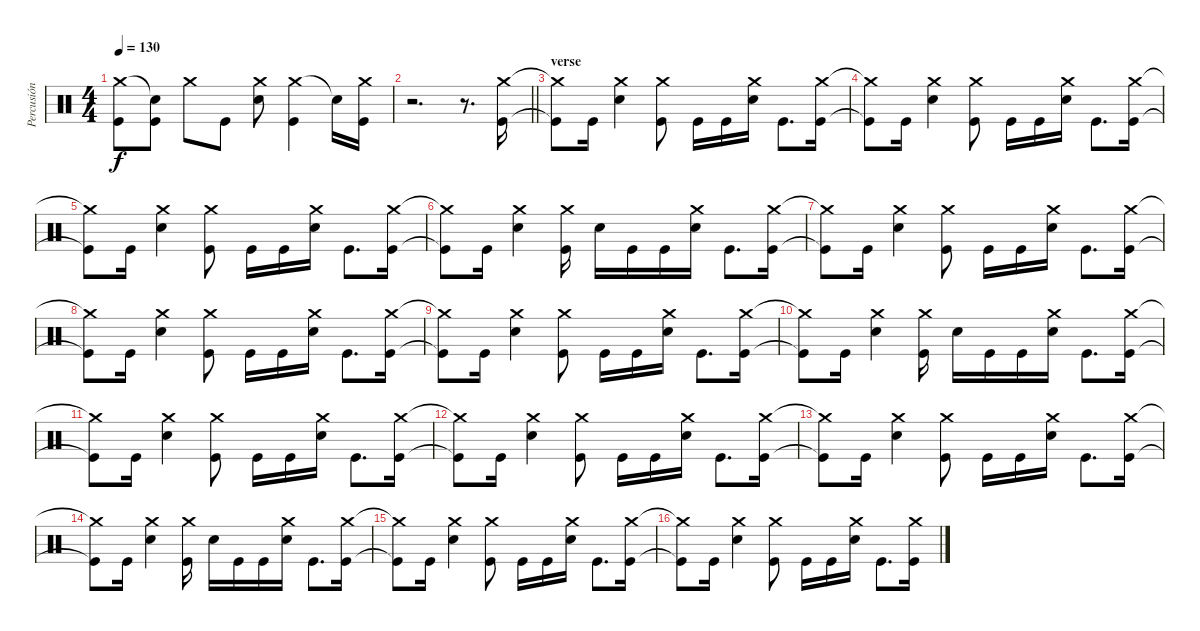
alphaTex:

\track ("Percusión" "Percusión") {instrument percussion}
\staff {score}
\articulation defaults
\ts (4 4)
\tempo 130
\clef neutral
\ks c
("Crash medium (hit)" "Kick (hit)").8{dy f} ("Snare (hit)"{t} "Kick (hit)").8 "Crash medium (hit)".8 "Kick (hit)".8 ("Crash medium (hit)" "Electric Snare (hit)").8 ("Crash medium (hit)" "Kick (hit)").4 "Snare (hit)"{t}.16 ("Crash medium (hit)" "Kick (hit)").16 |
\barLineRight lightlight
r.2{d} r.8{d} ("Crash medium (hit)" "Kick (hit)").16 |
\section ("" "verse")
("Crash medium (hit)"{t} "Kick (hit)"{t}).8 "Kick (hit)".16 ("Crash medium (hit)" "Electric Snare (hit)").4 ("Crash medium (hit)" "Kick (hit)").8 "Kick (hit)".16 "Kick (hit)".16 ("Crash medium (hit)" "Electric Snare (hit)").16 "Kick (hit)".8{d} ("Crash medium (hit)" "Kick (hit)").16 |
("Crash medium (hit)"{t} "Kick (hit)"{t}).8 "Kick (hit)".16 ("Crash medium (hit)" "Electric Snare (hit)").4 ("Crash medium (hit)" "Kick (hit)").8 "Kick (hit)".16 "Kick (hit)".16 ("Crash medium (hit)" "Electric Snare (hit)").16 "Kick (hit)".8{d} ("Crash medium (hit)" "Kick (hit)").16 |
("Crash medium (hit)"{t} "Kick (hit)"{t}).8 "Kick (hit)".16 ("Crash medium (hit)" "Electric Snare (hit)").4 ("Crash medium (hit)" "Kick (hit)").8 "Kick (hit)".16 "Kick (hit)".16 ("Crash medium (hit)" "Electric Snare (hit)").16 "Kick (hit)".8{d} ("Crash medium (hit)" "Kick (hit)").16 |
("Crash medium (hit)"{t} "Kick (hit)"{t}).8 "Kick (hit)".16 ("Crash medium (hit)" "Electric Snare (hit)").4 ("Crash medium (hit)" "Kick (hit)").16 "Electric Snare (hit)".16 "Kick (hit)".16 "Kick (hit)".16 ("Crash medium (hit)" "Electric Snare (hit)").16 "Kick (hit)".8{d} ("Crash medium (hit)" "Kick (hit)").16 |
("Crash medium (hit)"{t} "Kick (hit)"{t}).8 "Kick (hit)".16 ("Crash medium (hit)" "Electric Snare (hit)").4 ("Crash medium (hit)" "Kick (hit)").8 "Kick (hit)".16 "Kick (hit)".16 ("Crash medium (hit)" "Electric Snare (hit)").16 "Kick (hit)".8{d} ("Crash medium (hit)" "Kick (hit)").16 |
("Crash medium (hit)"{t} "Kick (hit)"{t}).8 "Kick (hit)".16 ("Crash medium (hit)" "Electric Snare (hit)").4 ("Crash medium (hit)" "Kick (hit)").8 "Kick (hit)".16 "Kick (hit)".16 ("Crash medium (hit)" "Electric Snare (hit)").16 "Kick (hit)".8{d} ("Crash medium (hit)" "Kick (hit)").16 |
("Crash medium (hit)"{t} "Kick (hit)"{t}).8 "Kick (hit)".16 ("Crash medium (hit)" "Electric Snare (hit)").4 ("Crash medium (hit)" "Kick (hit)").8 "Kick (hit)".16 "Kick (hit)".16 ("Crash medium (hit)" "Electric Snare (hit)").16 "Kick (hit)".8{d} ("Crash medium (hit)" "Kick (hit)").16 |
("Crash medium (hit)"{t} "Kick (hit)"{t}).8 "Kick (hit)".16 ("Crash medium (hit)" "Electric Snare (hit)").4 ("Crash medium (hit)" "Kick (hit)").16 "Electric Snare (hit)".16 "Kick (hit)".16 "Kick (hit)".16 ("Crash medium (hit)" "Electric Snare (hit)").16 "Kick (hit)".8{d} ("Crash medium (hit)" "Kick (hit)").16 |
("Crash medium (hit)"{t} "Kick (hit)"{t}).8 "Kick (hit)".16 ("Crash medium (hit)" "Electric Snare (hit)").4 ("Crash medium (hit)" "Kick (hit)").8 "Kick (hit)".16 "Kick (hit)".16 ("Crash medium (hit)" "Electric Snare (hit)").16 "Kick (hit)".8{d} ("Crash medium (hit)" "Kick (hit)").16 |
("Crash medium (hit)"{t} "Kick (hit)"{t}).8 "Kick (hit)".16 ("Crash medium (hit)" "Electric Snare (hit)").4 ("Crash medium (hit)" "Kick (hit)").8 "Kick (hit)".16 "Kick (hit)".16 ("Crash medium (hit)" "Electric Snare (hit)").16 "Kick (hit)".8{d} ("Crash medium (hit)" "Kick (hit)").16 |
("Crash medium (hit)"{t} "Kick (hit)"{t}).8 "Kick (hit)".16 ("Crash medium (hit)" "Electric Snare (hit)").4 ("Crash medium (hit)" "Kick (hit)").8 "Kick (hit)".16 "Kick (hit)".16 ("Crash medium (hit)" "Electric Snare (hit)").16 "Kick (hit)".8{d} ("Crash medium (hit)" "Kick (hit)").16 |
("Crash medium (hit)"{t} "Kick (hit)"{t}).8 "Kick (hit)".16 ("Crash medium (hit)" "Electric Snare (hit)").4 ("Crash medium (hit)" "Kick (hit)").16 "Electric Snare (hit)".16 "Kick (hit)".16 "Kick (hit)".16 ("Crash medium (hit)" "Electric Snare (hit)").16 "Kick (hit)".8{d} ("Crash medium (hit)" "Kick (hit)").16 |
("Crash medium (hit)"{t} "Kick (hit)"{t}).8 "Kick (hit)".16 ("Crash medium (hit)" "Electric Snare (hit)").4 ("Crash medium (hit)" "Kick (hit)").8 "Kick (hit)".16 "Kick (hit)".16 ("Crash medium (hit)" "Electric Snare (hit)").16 "Kick (hit)".8{d} ("Crash medium (hit)" "Kick (hit)").16 |
("Crash medium (hit)"{t} "Kick (hit)"{t}).8 "Kick (hit)".16 ("Crash medium (hit)" "Electric Snare (hit)").4 ("Crash medium (hit)" "Kick (hit)").8 "Kick (hit)".16 "Kick (hit)".16 ("Crash medium (hit)" "Electric Snare (hit)").16 "Kick (hit)".8{d} ("Crash medium (hit)" "Kick (hit)").16
